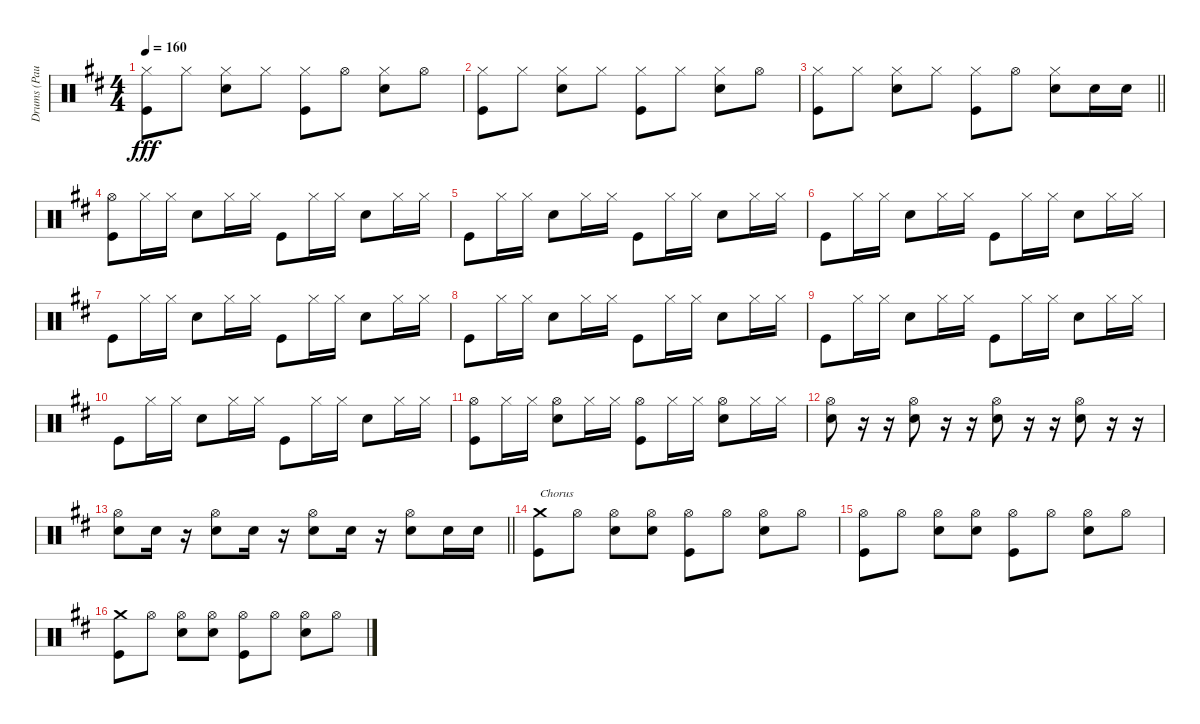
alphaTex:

\track ("Drums (Paul)" "Drums (Pau") {instrument percussion}
\staff {score}
\articulation defaults
\ts (4 4)
\tempo 160
\clef neutral
\ks d
("Hi-Hat (closed)" "Kick (hit)").8{dy fff} "Hi-Hat (closed)".8 ("Hi-Hat (closed)" "Electric Snare (hit)").8 "Hi-Hat (closed)".8 ("Hi-Hat (closed)" "Kick (hit)").8 "Hi-Hat (open)".8 ("Hi-Hat (closed)" "Electric Snare (hit)").8 "Hi-Hat (open)".8 |
("Hi-Hat (closed)" "Kick (hit)").8 "Hi-Hat (closed)".8 ("Hi-Hat (closed)" "Electric Snare (hit)").8 "Hi-Hat (closed)".8 ("Hi-Hat (closed)" "Kick (hit)").8 "Hi-Hat (closed)".8 ("Hi-Hat (closed)" "Electric Snare (hit)").8 "Hi-Hat (open)".8 |
\barLineRight lightlight
("Hi-Hat (closed)" "Kick (hit)").8 "Hi-Hat (closed)".8 ("Hi-Hat (closed)" "Electric Snare (hit)").8 "Hi-Hat (closed)".8 ("Hi-Hat (closed)" "Kick (hit)").8 "Hi-Hat (open)".8 ("Hi-Hat (closed)" "Electric Snare (hit)").8 "Electric Snare (hit)".16 "Electric Snare (hit)".16 |
("Hi-Hat (open)" "Kick (hit)").8 "Hi-Hat (closed)".16 "Hi-Hat (closed)".16 "Snare (hit) 2".8 "Hi-Hat (closed)".16 "Hi-Hat (closed)".16 "Kick (hit)".8 "Hi-Hat (closed)".16 "Hi-Hat (closed)".16 "Snare (hit) 2".8 "Hi-Hat (closed)".16 "Hi-Hat (closed)".16 |
"Kick (hit)".8 "Hi-Hat (closed)".16 "Hi-Hat (closed)".16 "Snare (hit) 2".8 "Hi-Hat (closed)".16 "Hi-Hat (closed)".16 "Kick (hit)".8 "Hi-Hat (closed)".16 "Hi-Hat (closed)".16 "Snare (hit) 2".8 "Hi-Hat (closed)".16 "Hi-Hat (closed)".16 |
"Kick (hit)".8 "Hi-Hat (closed)".16 "Hi-Hat (closed)".16 "Snare (hit) 2".8 "Hi-Hat (closed)".16 "Hi-Hat (closed)".16 "Kick (hit)".8 "Hi-Hat (closed)".16 "Hi-Hat (closed)".16 "Snare (hit) 2".8 "Hi-Hat (closed)".16 "Hi-Hat (closed)".16 |
"Kick (hit)".8 "Hi-Hat (closed)".16 "Hi-Hat (closed)".16 "Snare (hit) 2".8 "Hi-Hat (closed)".16 "Hi-Hat (closed)".16 "Kick (hit)".8 "Hi-Hat (closed)".16 "Hi-Hat (closed)".16 "Snare (hit) 2".8 "Hi-Hat (closed)".16 "Hi-Hat (closed)".16 |
"Kick (hit)".8 "Hi-Hat (closed)".16 "Hi-Hat (closed)".16 "Snare (hit) 2".8 "Hi-Hat (closed)".16 "Hi-Hat (closed)".16 "Kick (hit)".8 "Hi-Hat (closed)".16 "Hi-Hat (closed)".16 "Snare (hit) 2".8 "Hi-Hat (closed)".16 "Hi-Hat (closed)".16 |
"Kick (hit)".8 "Hi-Hat (closed)".16 "Hi-Hat (closed)".16 "Snare (hit) 2".8 "Hi-Hat (closed)".16 "Hi-Hat (closed)".16 "Kick (hit)".8 "Hi-Hat (closed)".16 "Hi-Hat (closed)".16 "Snare (hit) 2".8 "Hi-Hat (closed)".16 "Hi-Hat (closed)".16 |
"Kick (hit)".8 "Hi-Hat (closed)".16 "Hi-Hat (closed)".16 "Snare (hit) 2".8 "Hi-Hat (closed)".16 "Hi-Hat (closed)".16 "Kick (hit)".8 "Hi-Hat (closed)".16 "Hi-Hat (closed)".16 "Snare (hit) 2".8 "Hi-Hat (closed)".16 "Hi-Hat (closed)".16 |
("Hi-Hat (open)" "Kick (hit)").8 "Hi-Hat (closed)".16 "Hi-Hat (closed)".16 ("Hi-Hat (open)" "Snare (hit) 2").8 "Hi-Hat (closed)".16 "Hi-Hat (closed)".16 ("Hi-Hat (open)" "Kick (hit)").8 "Hi-Hat (closed)".16 "Hi-Hat (closed)".16 ("Hi-Hat (open)" "Snare (hit) 2").8 "Hi-Hat (closed)".16 "Hi-Hat (closed)".16 |
("Hi-Hat (open)" "Snare (hit) 2").8 r.16 r.16 ("Hi-Hat (open)" "Snare (hit) 2").8 r.16 r.16 ("Hi-Hat (open)" "Snare (hit) 2").8 r.16 r.16 ("Hi-Hat (open)" "Snare (hit) 2").8 r.16 r.16 |
\barLineRight lightlight
("Hi-Hat (open)" "Snare (hit) 2").8 "Snare (hit) 2".16 r.16 ("Hi-Hat (open)" "Snare (hit) 2").8 "Snare (hit) 2".16 r.16 ("Hi-Hat (open)" "Snare (hit) 2").8 "Snare (hit) 2".16 r.16 ("Hi-Hat (open)" "Snare (hit) 2").8 "Snare (hit) 2".16 "Snare (hit) 2".16 |
("Crash medium (hit)" "Kick (hit)").8{txt "Chorus"} "Hi-Hat (open)".8 ("Hi-Hat (open)" "Electric Snare (hit)").8 ("Hi-Hat (open)" "Electric Snare (hit)").8 ("Hi-Hat (open)" "Kick (hit)").8 "Hi-Hat (open)".8 ("Hi-Hat (open)" "Electric Snare (hit)").8 "Hi-Hat (open)".8 |
("Hi-Hat (open)" "Kick (hit)").8 "Hi-Hat (open)".8 ("Hi-Hat (open)" "Electric Snare (hit)").8 ("Hi-Hat (open)" "Electric Snare (hit)").8 ("Hi-Hat (open)" "Kick (hit)").8 "Hi-Hat (open)".8 ("Hi-Hat (open)" "Electric Snare (hit)").8 "Hi-Hat (open)".8 |
("Crash medium (hit)" "Kick (hit)").8 "Hi-Hat (open)".8 ("Hi-Hat (open)" "Electric Snare (hit)").8 ("Hi-Hat (open)" "Electric Snare (hit)").8 ("Hi-Hat (open)" "Kick (hit)").8 "Hi-Hat (open)".8 ("Hi-Hat (open)" "Electric Snare (hit)").8 "Hi-Hat (open)".8
